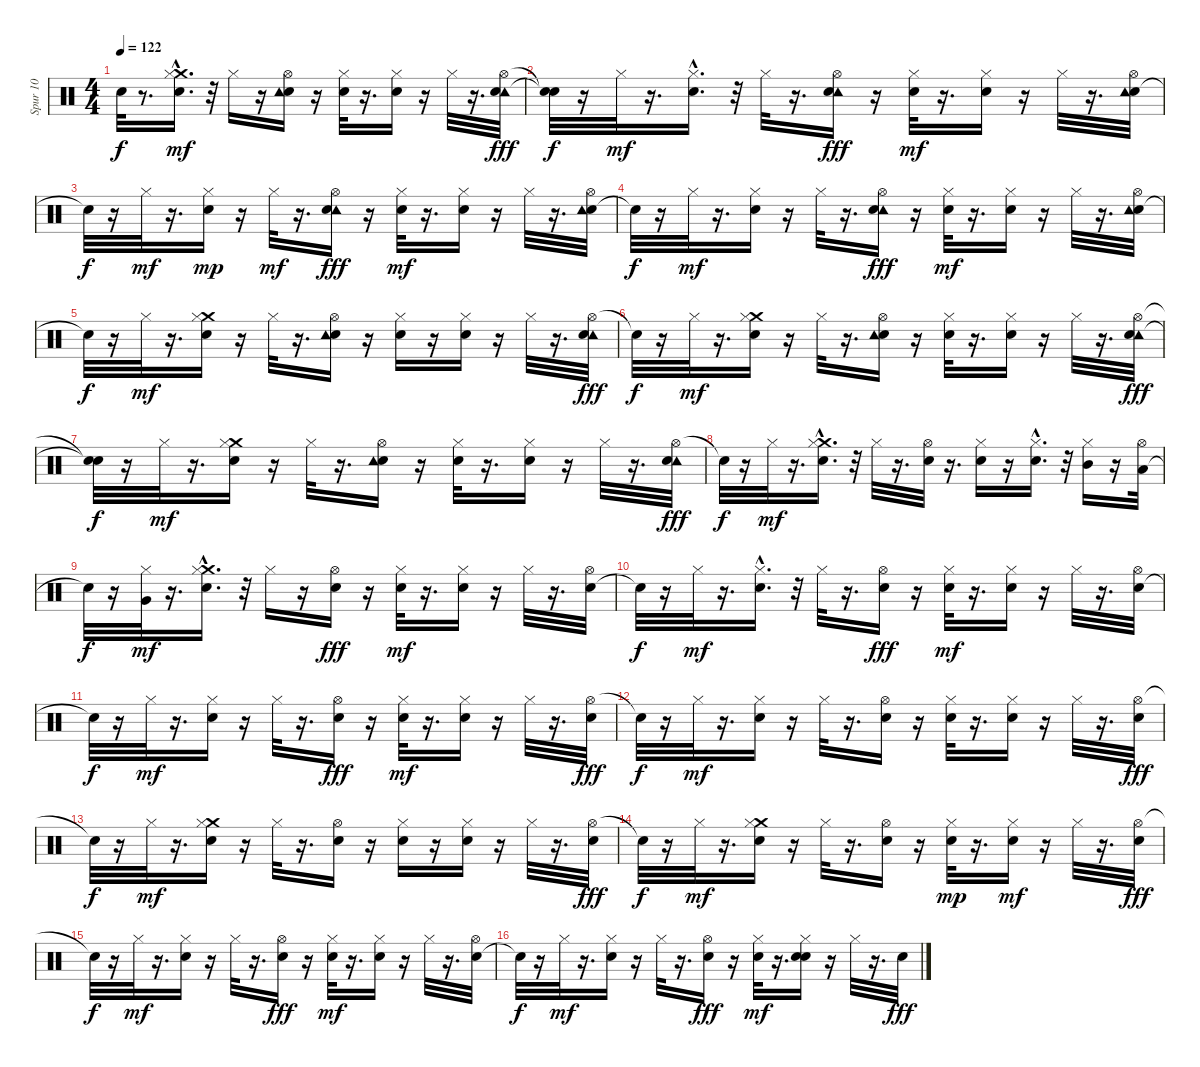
\track ("Spur 10" "Spur 10") {instrument percussion}
\staff {score}
\articulation defaults
\ts (4 4)
\tempo 122
\clef neutral
\ks c "Snare (hit)"{t}.32{dy f}
r.8{d} ("Snare (hit)"{hac} "Crash medium (hit)" "Hi-Hat (closed)").16{d dy mf} r.32 "Hi-Hat (closed)".16 r.16 ("Snare (hit) 2" "Tambourine (hit)" "Hi-Hat (open)").16 r.16 ("Snare (hit)" "Hi-Hat (closed)").32 r.16{d} ("Snare (hit)" "Hi-Hat (closed)").16 r.16 "Hi-Hat (closed)".32 r.16{d} ("Hi-Hat (open)" "Tambourine (hit)" "Snare (hit) 2").32{dy fff} |
("Snare (hit)"{t} "Snare (hit)"{t}).32{dy f} r.16 "Hi-Hat (closed)".32{dy mf} r.16{d} ("Snare (hit)"{hac} "Hi-Hat (closed)").16{d} r.32 "Hi-Hat (closed)".32 r.16{d} ("Hi-Hat (open)" "Tambourine (hit)" "Snare (hit) 2").16{dy fff} r.16 ("Snare (hit)" "Hi-Hat (closed)").32{dy mf} r.16{d} ("Snare (hit)" "Hi-Hat (closed)").16 r.16 "Hi-Hat (closed)".32 r.16{d} ("Snare (hit) 2" "Tambourine (hit)" "Hi-Hat (open)").32 |
"Snare (hit)"{t}.32{dy f} r.16 "Hi-Hat (closed)".32{dy mf} r.16{d} ("Snare (hit)" "Hi-Hat (closed)").16{dy mp} r.16 "Hi-Hat (closed)".32{dy mf} r.16{d} ("Hi-Hat (open)" "Tambourine (hit)" "Snare (hit) 2").16{dy fff} r.16 ("Snare (hit)" "Hi-Hat (closed)").32{dy mf} r.16{d} ("Snare (hit)" "Hi-Hat (closed)").16 r.16 "Hi-Hat (closed)".32 r.16{d} ("Snare (hit) 2" "Tambourine (hit)" "Hi-Hat (open)").32 |
"Snare (hit)"{t}.32{dy f} r.16 "Hi-Hat (closed)".32{dy mf} r.16{d} ("Snare (hit)" "Hi-Hat (closed)").16 r.16 "Hi-Hat (closed)".32 r.16{d} ("Hi-Hat (open)" "Tambourine (hit)" "Snare (hit) 2").16{dy fff} r.16 ("Snare (hit)" "Hi-Hat (closed)").32{dy mf} r.16{d} ("Snare (hit)" "Hi-Hat (closed)").16 r.16 "Hi-Hat (closed)".32 r.16{d} ("Snare (hit) 2" "Tambourine (hit)" "Hi-Hat (open)").32 |
"Snare (hit)"{t}.32{dy f} r.16 "Hi-Hat (closed)".32{dy mf} r.16{d} ("Crash medium (hit)" "Snare (hit)" "Hi-Hat (closed)").16 r.16 "Hi-Hat (closed)".32 r.16{d} ("Snare (hit) 2" "Tambourine (hit)" "Hi-Hat (open)").16 r.16 ("Snare (hit)" "Hi-Hat (closed)").16 r.16 ("Snare (hit)" "Hi-Hat (closed)").16 r.16 "Hi-Hat (closed)".32 r.16{d} ("Hi-Hat (open)" "Tambourine (hit)" "Snare (hit) 2").32{dy fff} |
"Snare (hit)"{t}.32{dy f} r.16 "Hi-Hat (closed)".32{dy mf} r.16{d} ("Crash medium (hit)" "Snare (hit)" "Hi-Hat (closed)").16 r.16 "Hi-Hat (closed)".32 r.16{d} ("Snare (hit) 2" "Tambourine (hit)" "Hi-Hat (open)").16 r.16 ("Snare (hit)" "Hi-Hat (closed)").32 r.16{d} ("Snare (hit)" "Hi-Hat (closed)").16 r.16 "Hi-Hat (closed)".32 r.16{d} ("Hi-Hat (open)" "Tambourine (hit)" "Snare (hit) 2").32{dy fff} |
("Snare (hit)"{t} "Snare (hit)"{t}).32{dy f} r.16 "Hi-Hat (closed)".32{dy mf} r.16{d} ("Snare (hit)" "Crash medium (hit)" "Hi-Hat (closed)").16 r.16 "Hi-Hat (closed)".32 r.16{d} ("Snare (hit) 2" "Tambourine (hit)" "Hi-Hat (open)").16 r.16 ("Snare (hit)" "Hi-Hat (closed)").32 r.16{d} ("Snare (hit)" "Hi-Hat (closed)").16 r.16 "Hi-Hat (closed)".32 r.16{d} ("Hi-Hat (open)" "Tambourine (hit)" "Snare (hit) 2").32{dy fff} |
"Snare (hit)"{t}.32{dy f} r.16 "Hi-Hat (closed)".32{dy mf} r.16{d} ("Snare (hit)"{hac} "Crash medium (hit)" "Hi-Hat (closed)").16{d} r.32 "Hi-Hat (closed)".32 r.16{d} ("Snare (hit) 2" "Hi-Hat (open)").32 r.16{d} ("Snare (hit) 2" "Hi-Hat (closed)").16 r.16 ("Snare (hit)"{hac} "Hi-Hat (closed)").16{d} r.32 ("Mid Tom (hit)" "Hi-Hat (closed)").16 r.16 ("Low Tom (hit)" "Hi-Hat (open)").32 |
"Snare (hit)"{t}.32{dy f} r.16 ("Very Low Tom (hit)" "Hi-Hat (closed)").32{dy mf} r.16{d} ("Snare (hit)"{hac} "Crash medium (hit)" "Hi-Hat (closed)").16{d} r.32 "Hi-Hat (closed)".16 r.16 ("Hi-Hat (open)" "Snare (hit) 2").16{dy fff} r.16 ("Snare (hit)" "Hi-Hat (closed)").32{dy mf} r.16{d} ("Snare (hit)" "Hi-Hat (closed)").16 r.16 "Hi-Hat (closed)".32 r.16{d} ("Snare (hit) 2" "Hi-Hat (open)").32 |
"Snare (hit)"{t}.32{dy f} r.16 "Hi-Hat (closed)".32{dy mf} r.16{d} ("Snare (hit)"{hac} "Hi-Hat (closed)").16{d} r.32 "Hi-Hat (closed)".32 r.16{d} ("Hi-Hat (open)" "Snare (hit) 2").16{dy fff} r.16 ("Snare (hit)" "Hi-Hat (closed)").32{dy mf} r.16{d} ("Snare (hit)" "Hi-Hat (closed)").16 r.16 "Hi-Hat (closed)".32 r.16{d} ("Snare (hit) 2" "Hi-Hat (open)").32 |
"Snare (hit)"{t}.32{dy f} r.16 "Hi-Hat (closed)".32{dy mf} r.16{d} ("Snare (hit)" "Hi-Hat (closed)").16 r.16 "Hi-Hat (closed)".32 r.16{d} ("Hi-Hat (open)" "Snare (hit) 2").16{dy fff} r.16 ("Snare (hit)" "Hi-Hat (closed)").32{dy mf} r.16{d} ("Snare (hit)" "Hi-Hat (closed)").16 r.16 "Hi-Hat (closed)".32 r.16{d} ("Hi-Hat (open)" "Snare (hit) 2").32{dy fff} |
"Snare (hit)"{t}.32{dy f} r.16 "Hi-Hat (closed)".32{dy mf} r.16{d} ("Snare (hit)" "Hi-Hat (closed)").16 r.16 "Hi-Hat (closed)".32 r.16{d} ("Snare (hit) 2" "Hi-Hat (open)").16 r.16 ("Snare (hit)" "Hi-Hat (closed)").32 r.16{d} ("Snare (hit)" "Hi-Hat (closed)").16 r.16 "Hi-Hat (closed)".32 r.16{d} ("Hi-Hat (open)" "Snare (hit) 2").32{dy fff} |
"Snare (hit)"{t}.32{dy f} r.16 "Hi-Hat (closed)".32{dy mf} r.16{d} ("Crash medium (hit)" "Snare (hit)" "Hi-Hat (closed)").16 r.16 "Hi-Hat (closed)".32 r.16{d} ("Snare (hit) 2" "Hi-Hat (open)").16 r.16 ("Snare (hit)" "Hi-Hat (closed)").16 r.16 ("Snare (hit)" "Hi-Hat (closed)").16 r.16 "Hi-Hat (closed)".32 r.16{d} ("Hi-Hat (open)" "Snare (hit) 2").32{dy fff} |
"Snare (hit)"{t}.32{dy f} r.16 "Hi-Hat (closed)".32{dy mf} r.16{d} ("Snare (hit)" "Crash medium (hit)" "Hi-Hat (closed)").16 r.16 "Hi-Hat (closed)".32 r.16{d} ("Snare (hit) 2" "Hi-Hat (open)").16 r.16 ("Snare (hit)" "Hi-Hat (closed)").32{dy mp} r.16{d} ("Snare (hit)" "Hi-Hat (closed)").16{dy mf} r.16 "Hi-Hat (closed)".32 r.16{d} ("Hi-Hat (open)" "Snare (hit) 2").32{dy fff} |
"Snare (hit)"{t}.32{dy f} r.16 "Hi-Hat (closed)".32{dy mf} r.16{d} ("Snare (hit)" "Hi-Hat (closed)").16 r.16 "Hi-Hat (closed)".32 r.16{d} ("Hi-Hat (open)" "Snare (hit) 2").16{dy fff} r.16 ("Snare (hit)" "Hi-Hat (closed)").32{dy mf} r.16{d} ("Snare (hit)" "Hi-Hat (closed)").16 r.16 "Hi-Hat (closed)".32 r.16{d} ("Snare (hit) 2" "Hi-Hat (open)").32 |
"Snare (hit)"{t}.32{dy f} r.16 "Hi-Hat (closed)".32{dy mf} r.16{d} ("Snare (hit)" "Hi-Hat (closed)").16 r.16 "Hi-Hat (closed)".32 r.16{d} ("Hi-Hat (open)" "Snare (hit) 2").16{dy fff} r.16 ("Snare (hit)" "Hi-Hat (closed)").32{dy mf} r.16{d} ("Snare (hit) 2" "Snare (hit)" "Hi-Hat (closed)").16 r.16 "Hi-Hat (closed)".32 r.16{d} "Snare (hit) 2".32{dy fff}
